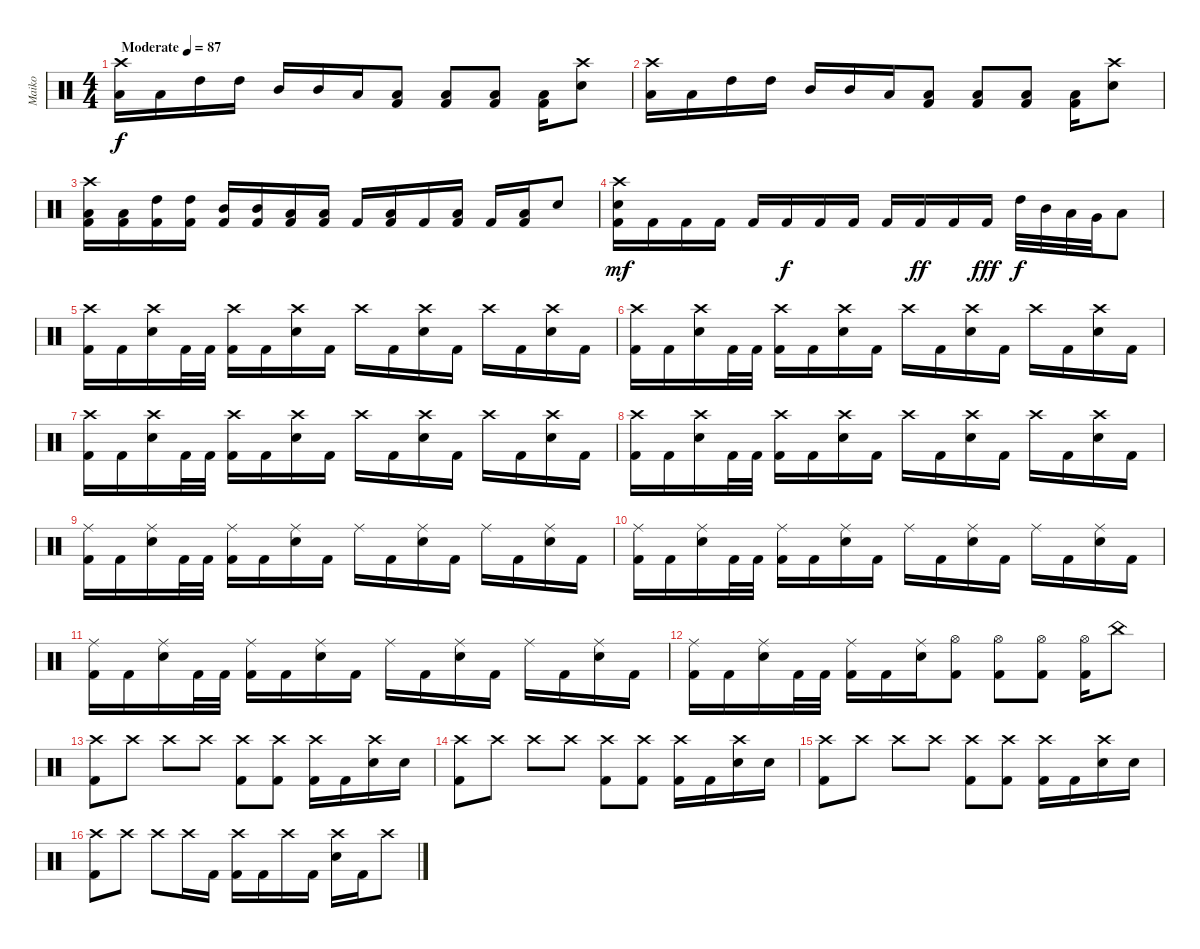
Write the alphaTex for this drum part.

\track ("Maiko" "Maiko") {instrument percussion}
\staff {score}
\articulation defaults
\ts (4 4)
\tempo (87 "Moderate")
\clef neutral
\ks c
("Crash high (hit)" "Low Tom (hit)").16{dy f} "Low Tom (hit)".16 "High Tom (hit)".16 "High Tom (hit)".16 "Mid Tom (hit)".16 "Mid Tom (hit)".16 "Low Tom (hit)".16 ("Low Tom (hit)" "Kick (hit) 2").8 ("Low Tom (hit)" "Kick (hit) 2").8 ("Low Tom (hit)" "Kick (hit) 2").8 ("Low Tom (hit)" "Kick (hit) 2").16 ("Crash high (hit)" "Electric Snare (hit)").8 |
("Crash high (hit)" "Low Tom (hit)").16 "Low Tom (hit)".16 "High Tom (hit)".16 "High Tom (hit)".16 "Mid Tom (hit)".16 "Mid Tom (hit)".16 "Low Tom (hit)".16 ("Low Tom (hit)" "Kick (hit) 2").8 ("Low Tom (hit)" "Kick (hit) 2").8 ("Low Tom (hit)" "Kick (hit) 2").8 ("Low Tom (hit)" "Kick (hit) 2").16 ("Crash high (hit)" "Electric Snare (hit)").8 |
("Crash high (hit)" "Low Tom (hit)" "Kick (hit) 2").16 ("Low Tom (hit)" "Kick (hit) 2").16 ("High Tom (hit)" "Kick (hit) 2").16 ("High Tom (hit)" "Kick (hit) 2").16 ("Mid Tom (hit)" "Kick (hit) 2").16 ("Mid Tom (hit)" "Kick (hit) 2").16 ("Low Tom (hit)" "Kick (hit) 2").16 ("Low Tom (hit)" "Kick (hit) 2").16 "Kick (hit) 2".16 ("Low Tom (hit)" "Kick (hit) 2").16 "Kick (hit) 2".16 ("Low Tom (hit)" "Kick (hit) 2").16 "Kick (hit) 2".16 ("Low Tom (hit)" "Kick (hit) 2").16 "Electric Snare (hit)".8 |
("Crash high (hit)" "Electric Snare (hit)" "Kick (hit) 2").16{dy mf} "Kick (hit) 2".16 "Kick (hit) 2".16 "Kick (hit) 2".16 "Kick (hit) 2".16 "Kick (hit) 2".16{dy f} "Kick (hit) 2".16 "Kick (hit) 2".16 "Kick (hit) 2".16 "Kick (hit) 2".16{dy ff} "Kick (hit) 2".16 "Kick (hit) 2".16{dy fff} "High Tom (hit)".32{dy f} "Mid Tom (hit)".32 "Low Tom (hit)".32 "Very Low Tom (hit)".32 "Low Floor Tom (hit)".8 |
("Crash high (hit)" "Kick (hit) 2").16 "Kick (hit) 2".16 ("Crash high (hit)" "Electric Snare (hit)").16 "Kick (hit) 2".32 "Kick (hit) 2".32 ("Crash high (hit)" "Kick (hit) 2").16 "Kick (hit) 2".16 ("Crash high (hit)" "Electric Snare (hit)").16 "Kick (hit) 2".16 "Crash high (hit)".16 "Kick (hit) 2".16 ("Crash high (hit)" "Electric Snare (hit)").16 "Kick (hit) 2".16 "Crash high (hit)".16 "Kick (hit) 2".16 ("Crash high (hit)" "Electric Snare (hit)").16 "Kick (hit) 2".16 |
("Crash high (hit)" "Kick (hit) 2").16 "Kick (hit) 2".16 ("Crash high (hit)" "Electric Snare (hit)").16 "Kick (hit) 2".32 "Kick (hit) 2".32 ("Crash high (hit)" "Kick (hit) 2").16 "Kick (hit) 2".16 ("Crash high (hit)" "Electric Snare (hit)").16 "Kick (hit) 2".16 "Crash high (hit)".16 "Kick (hit) 2".16 ("Crash high (hit)" "Electric Snare (hit)").16 "Kick (hit) 2".16 "Crash high (hit)".16 "Kick (hit) 2".16 ("Crash high (hit)" "Electric Snare (hit)").16 "Kick (hit) 2".16 |
("Crash high (hit)" "Kick (hit) 2").16 "Kick (hit) 2".16 ("Crash high (hit)" "Electric Snare (hit)").16 "Kick (hit) 2".32 "Kick (hit) 2".32 ("Crash high (hit)" "Kick (hit) 2").16 "Kick (hit) 2".16 ("Crash high (hit)" "Electric Snare (hit)").16 "Kick (hit) 2".16 "Crash high (hit)".16 "Kick (hit) 2".16 ("Crash high (hit)" "Electric Snare (hit)").16 "Kick (hit) 2".16 "Crash high (hit)".16 "Kick (hit) 2".16 ("Crash high (hit)" "Electric Snare (hit)").16 "Kick (hit) 2".16 |
("Crash high (hit)" "Kick (hit) 2").16 "Kick (hit) 2".16 ("Crash high (hit)" "Electric Snare (hit)").16 "Kick (hit) 2".32 "Kick (hit) 2".32 ("Crash high (hit)" "Kick (hit) 2").16 "Kick (hit) 2".16 ("Crash high (hit)" "Electric Snare (hit)").16 "Kick (hit) 2".16 "Crash high (hit)".16 "Kick (hit) 2".16 ("Crash high (hit)" "Electric Snare (hit)").16 "Kick (hit) 2".16 "Crash high (hit)".16 "Kick (hit) 2".16 ("Crash high (hit)" "Electric Snare (hit)").16 "Kick (hit) 2".16 |
("Ride (middle)" "Kick (hit) 2").16 "Kick (hit) 2".16 ("Ride (middle)" "Electric Snare (hit)").16 "Kick (hit) 2".32 "Kick (hit) 2".32 ("Ride (middle)" "Kick (hit) 2").16 "Kick (hit) 2".16 ("Ride (middle)" "Electric Snare (hit)").16 "Kick (hit) 2".16 "Ride (middle)".16 "Kick (hit) 2".16 ("Ride (middle)" "Electric Snare (hit)").16 "Kick (hit) 2".16 "Ride (middle)".16 "Kick (hit) 2".16 ("Ride (middle)" "Electric Snare (hit)").16 "Kick (hit) 2".16 |
("Ride (middle)" "Kick (hit) 2").16 "Kick (hit) 2".16 ("Ride (middle)" "Electric Snare (hit)").16 "Kick (hit) 2".32 "Kick (hit) 2".32 ("Ride (middle)" "Kick (hit) 2").16 "Kick (hit) 2".16 ("Ride (middle)" "Electric Snare (hit)").16 "Kick (hit) 2".16 "Ride (middle)".16 "Kick (hit) 2".16 ("Ride (middle)" "Electric Snare (hit)").16 "Kick (hit) 2".16 "Ride (middle)".16 "Kick (hit) 2".16 ("Ride (middle)" "Electric Snare (hit)").16 "Kick (hit) 2".16 |
("Ride (middle)" "Kick (hit) 2").16 "Kick (hit) 2".16 ("Ride (middle)" "Electric Snare (hit)").16 "Kick (hit) 2".32 "Kick (hit) 2".32 ("Ride (middle)" "Kick (hit) 2").16 "Kick (hit) 2".16 ("Ride (middle)" "Electric Snare (hit)").16 "Kick (hit) 2".16 "Ride (middle)".16 "Kick (hit) 2".16 ("Ride (middle)" "Electric Snare (hit)").16 "Kick (hit) 2".16 "Ride (middle)".16 "Kick (hit) 2".16 ("Ride (middle)" "Electric Snare (hit)").16 "Kick (hit) 2".16 |
("Ride (middle)" "Kick (hit) 2").16 "Kick (hit) 2".16 ("Ride (middle)" "Electric Snare (hit)").16 "Kick (hit) 2".32 "Kick (hit) 2".32 ("Ride (middle)" "Kick (hit) 2").16 "Kick (hit) 2".16 ("Ride (middle)" "Electric Snare (hit)").16 ("Hi-Hat (open)" "Kick (hit) 2").8 ("Hi-Hat (open)" "Kick (hit) 2").8 ("Hi-Hat (open)" "Kick (hit) 2").8 ("Hi-Hat (open)" "Kick (hit) 2").16 "China (hit)".8 |
("Crash high (hit)" "Kick (hit) 2").8 "Crash high (hit)".8 "Crash high (hit)".8 "Crash high (hit)".8 ("Crash high (hit)" "Kick (hit) 2").8 ("Crash high (hit)" "Kick (hit) 2").8 ("Crash high (hit)" "Kick (hit) 2").16 "Kick (hit) 2".16 ("Crash high (hit)" "Electric Snare (hit)").16 "Electric Snare (hit)".16 |
("Crash high (hit)" "Kick (hit) 2").8 "Crash high (hit)".8 "Crash high (hit)".8 "Crash high (hit)".8 ("Crash high (hit)" "Kick (hit) 2").8 ("Crash high (hit)" "Kick (hit) 2").8 ("Crash high (hit)" "Kick (hit) 2").16 "Kick (hit) 2".16 ("Crash high (hit)" "Electric Snare (hit)").16 "Electric Snare (hit)".16 |
("Crash high (hit)" "Kick (hit) 2").8 "Crash high (hit)".8 "Crash high (hit)".8 "Crash high (hit)".8 ("Crash high (hit)" "Kick (hit) 2").8 ("Crash high (hit)" "Kick (hit) 2").8 ("Crash high (hit)" "Kick (hit) 2").16 "Kick (hit) 2".16 ("Crash high (hit)" "Electric Snare (hit)").16 "Electric Snare (hit)".16 |
("Crash high (hit)" "Kick (hit) 2").8 "Crash high (hit)".8 "Crash high (hit)".8 "Crash high (hit)".16 "Kick (hit) 2".16 ("Crash high (hit)" "Kick (hit) 2").16 "Kick (hit) 2".16 "Crash high (hit)".16 "Kick (hit) 2".16 ("Crash high (hit)" "Electric Snare (hit)").16 "Kick (hit) 2".16 "Crash high (hit)".8
